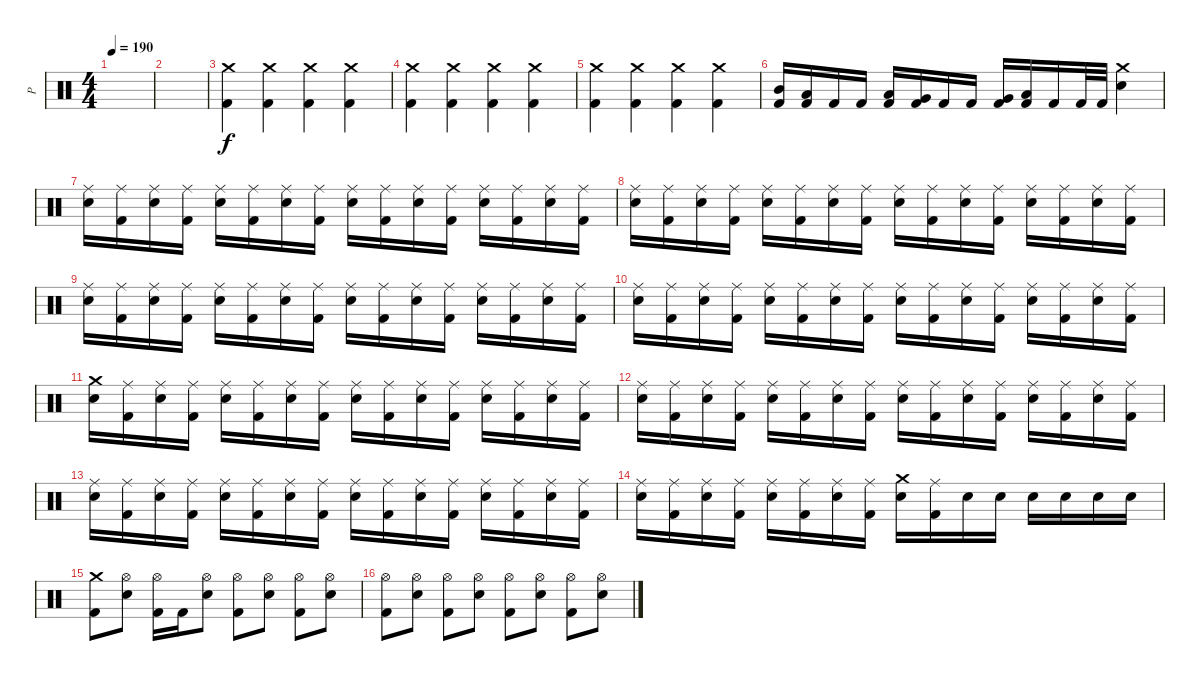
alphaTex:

\track ("P" "P") {instrument percussion}
\staff {score}
\articulation defaults
\ts (4 4)
\tempo 190
\clef neutral
\ks c
|
|
("Crash medium (hit)" "Kick (hit) 2").4 ("Crash medium (hit)" "Kick (hit) 2").4 ("Crash medium (hit)" "Kick (hit) 2").4 ("Crash medium (hit)" "Kick (hit) 2").4 |
("Crash medium (hit)" "Kick (hit) 2").4 ("Crash medium (hit)" "Kick (hit) 2").4 ("Crash medium (hit)" "Kick (hit) 2").4 ("Crash medium (hit)" "Kick (hit) 2").4 |
("Crash medium (hit)" "Kick (hit) 2").4 ("Crash medium (hit)" "Kick (hit) 2").4 ("Crash medium (hit)" "Kick (hit) 2").4 ("Crash medium (hit)" "Kick (hit) 2").4 |
("Mid Tom (hit)" "Kick (hit) 2").16 ("Low Tom (hit)" "Kick (hit) 2").16 "Kick (hit) 2".16 "Kick (hit) 2".16 ("Low Tom (hit)" "Kick (hit) 2").16 ("Very Low Tom (hit)" "Kick (hit) 2").16 "Kick (hit) 2".16 "Kick (hit) 2".16 ("Very Low Tom (hit)" "Kick (hit) 2").16 ("Low Floor Tom (hit)" "Kick (hit) 2").16 "Kick (hit) 2".16 "Kick (hit) 2".32 "Kick (hit) 2".32 ("Crash medium (hit)" "Electric Snare (hit)").4 |
("Ride (middle)" "Electric Snare (hit)").16 ("Ride (middle)" "Kick (hit) 2").16 ("Ride (middle)" "Electric Snare (hit)").16 ("Ride (middle)" "Kick (hit) 2").16 ("Ride (middle)" "Electric Snare (hit)").16 ("Ride (middle)" "Kick (hit) 2").16 ("Ride (middle)" "Electric Snare (hit)").16 ("Ride (middle)" "Kick (hit) 2").16 ("Ride (middle)" "Electric Snare (hit)").16 ("Ride (middle)" "Kick (hit) 2").16 ("Ride (middle)" "Electric Snare (hit)").16 ("Ride (middle)" "Kick (hit) 2").16 ("Ride (middle)" "Electric Snare (hit)").16 ("Ride (middle)" "Kick (hit) 2").16 ("Ride (middle)" "Electric Snare (hit)").16 ("Ride (middle)" "Kick (hit) 2").16 |
("Ride (middle)" "Electric Snare (hit)").16 ("Ride (middle)" "Kick (hit) 2").16 ("Ride (middle)" "Electric Snare (hit)").16 ("Ride (middle)" "Kick (hit) 2").16 ("Ride (middle)" "Electric Snare (hit)").16 ("Ride (middle)" "Kick (hit) 2").16 ("Ride (middle)" "Electric Snare (hit)").16 ("Ride (middle)" "Kick (hit) 2").16 ("Ride (middle)" "Electric Snare (hit)").16 ("Ride (middle)" "Kick (hit) 2").16 ("Ride (middle)" "Electric Snare (hit)").16 ("Ride (middle)" "Kick (hit) 2").16 ("Ride (middle)" "Electric Snare (hit)").16 ("Ride (middle)" "Kick (hit) 2").16 ("Ride (middle)" "Electric Snare (hit)").16 ("Ride (middle)" "Kick (hit) 2").16 |
("Ride (middle)" "Electric Snare (hit)").16 ("Ride (middle)" "Kick (hit) 2").16 ("Ride (middle)" "Electric Snare (hit)").16 ("Ride (middle)" "Kick (hit) 2").16 ("Ride (middle)" "Electric Snare (hit)").16 ("Ride (middle)" "Kick (hit) 2").16 ("Ride (middle)" "Electric Snare (hit)").16 ("Ride (middle)" "Kick (hit) 2").16 ("Ride (middle)" "Electric Snare (hit)").16 ("Ride (middle)" "Kick (hit) 2").16 ("Ride (middle)" "Electric Snare (hit)").16 ("Ride (middle)" "Kick (hit) 2").16 ("Ride (middle)" "Electric Snare (hit)").16 ("Ride (middle)" "Kick (hit) 2").16 ("Ride (middle)" "Electric Snare (hit)").16 ("Ride (middle)" "Kick (hit) 2").16 |
("Ride (middle)" "Electric Snare (hit)").16 ("Ride (middle)" "Kick (hit) 2").16 ("Ride (middle)" "Electric Snare (hit)").16 ("Ride (middle)" "Kick (hit) 2").16 ("Ride (middle)" "Electric Snare (hit)").16 ("Ride (middle)" "Kick (hit) 2").16 ("Ride (middle)" "Electric Snare (hit)").16 ("Ride (middle)" "Kick (hit) 2").16 ("Ride (middle)" "Electric Snare (hit)").16 ("Ride (middle)" "Kick (hit) 2").16 ("Ride (middle)" "Electric Snare (hit)").16 ("Ride (middle)" "Kick (hit) 2").16 ("Ride (middle)" "Electric Snare (hit)").16 ("Ride (middle)" "Kick (hit) 2").16 ("Ride (middle)" "Electric Snare (hit)").16 ("Ride (middle)" "Kick (hit) 2").16 |
("Crash medium (hit)" "Electric Snare (hit)").16 ("Ride (middle)" "Kick (hit) 2").16 ("Ride (middle)" "Electric Snare (hit)").16 ("Ride (middle)" "Kick (hit) 2").16 ("Ride (middle)" "Electric Snare (hit)").16 ("Ride (middle)" "Kick (hit) 2").16 ("Ride (middle)" "Electric Snare (hit)").16 ("Ride (middle)" "Kick (hit) 2").16 ("Ride (middle)" "Electric Snare (hit)").16 ("Ride (middle)" "Kick (hit) 2").16 ("Ride (middle)" "Electric Snare (hit)").16 ("Ride (middle)" "Kick (hit) 2").16 ("Ride (middle)" "Electric Snare (hit)").16 ("Ride (middle)" "Kick (hit) 2").16 ("Ride (middle)" "Electric Snare (hit)").16 ("Ride (middle)" "Kick (hit) 2").16 |
("Ride (middle)" "Electric Snare (hit)").16 ("Ride (middle)" "Kick (hit) 2").16 ("Ride (middle)" "Electric Snare (hit)").16 ("Ride (middle)" "Kick (hit) 2").16 ("Ride (middle)" "Electric Snare (hit)").16 ("Ride (middle)" "Kick (hit) 2").16 ("Ride (middle)" "Electric Snare (hit)").16 ("Ride (middle)" "Kick (hit) 2").16 ("Ride (middle)" "Electric Snare (hit)").16 ("Ride (middle)" "Kick (hit) 2").16 ("Ride (middle)" "Electric Snare (hit)").16 ("Ride (middle)" "Kick (hit) 2").16 ("Ride (middle)" "Electric Snare (hit)").16 ("Ride (middle)" "Kick (hit) 2").16 ("Ride (middle)" "Electric Snare (hit)").16 ("Ride (middle)" "Kick (hit) 2").16 |
("Ride (middle)" "Electric Snare (hit)").16 ("Ride (middle)" "Kick (hit) 2").16 ("Ride (middle)" "Electric Snare (hit)").16 ("Ride (middle)" "Kick (hit) 2").16 ("Ride (middle)" "Electric Snare (hit)").16 ("Ride (middle)" "Kick (hit) 2").16 ("Ride (middle)" "Electric Snare (hit)").16 ("Ride (middle)" "Kick (hit) 2").16 ("Ride (middle)" "Electric Snare (hit)").16 ("Ride (middle)" "Kick (hit) 2").16 ("Ride (middle)" "Electric Snare (hit)").16 ("Ride (middle)" "Kick (hit) 2").16 ("Ride (middle)" "Electric Snare (hit)").16 ("Ride (middle)" "Kick (hit) 2").16 ("Ride (middle)" "Electric Snare (hit)").16 ("Ride (middle)" "Kick (hit) 2").16 |
("Ride (middle)" "Electric Snare (hit)").16 ("Ride (middle)" "Kick (hit) 2").16 ("Ride (middle)" "Electric Snare (hit)").16 ("Ride (middle)" "Kick (hit) 2").16 ("Ride (middle)" "Electric Snare (hit)").16 ("Ride (middle)" "Kick (hit) 2").16 ("Ride (middle)" "Electric Snare (hit)").16 ("Ride (middle)" "Kick (hit) 2").16 ("Crash medium (hit)" "Electric Snare (hit)").16 ("Ride (middle)" "Kick (hit) 2").16 "Electric Snare (hit)".16 "Electric Snare (hit)".16 "Electric Snare (hit)".16 "Electric Snare (hit)".16 "Electric Snare (hit)".16 "Electric Snare (hit)".16 |
("Crash medium (hit)" "Kick (hit) 2").8 ("Hi-Hat (open)" "Electric Snare (hit)").8 ("Hi-Hat (open)" "Kick (hit) 2").16 "Kick (hit) 2".16 ("Hi-Hat (open)" "Electric Snare (hit)").8 ("Hi-Hat (open)" "Kick (hit) 2").8 ("Hi-Hat (open)" "Electric Snare (hit)").8 ("Hi-Hat (open)" "Kick (hit) 2").8 ("Hi-Hat (open)" "Electric Snare (hit)").8 |
("Hi-Hat (open)" "Kick (hit) 2").8 ("Hi-Hat (open)" "Electric Snare (hit)").8 ("Hi-Hat (open)" "Kick (hit) 2").8 ("Hi-Hat (open)" "Electric Snare (hit)").8 ("Hi-Hat (open)" "Kick (hit) 2").8 ("Hi-Hat (open)" "Electric Snare (hit)").8 ("Hi-Hat (open)" "Kick (hit) 2").8 ("Hi-Hat (open)" "Electric Snare (hit)").8
